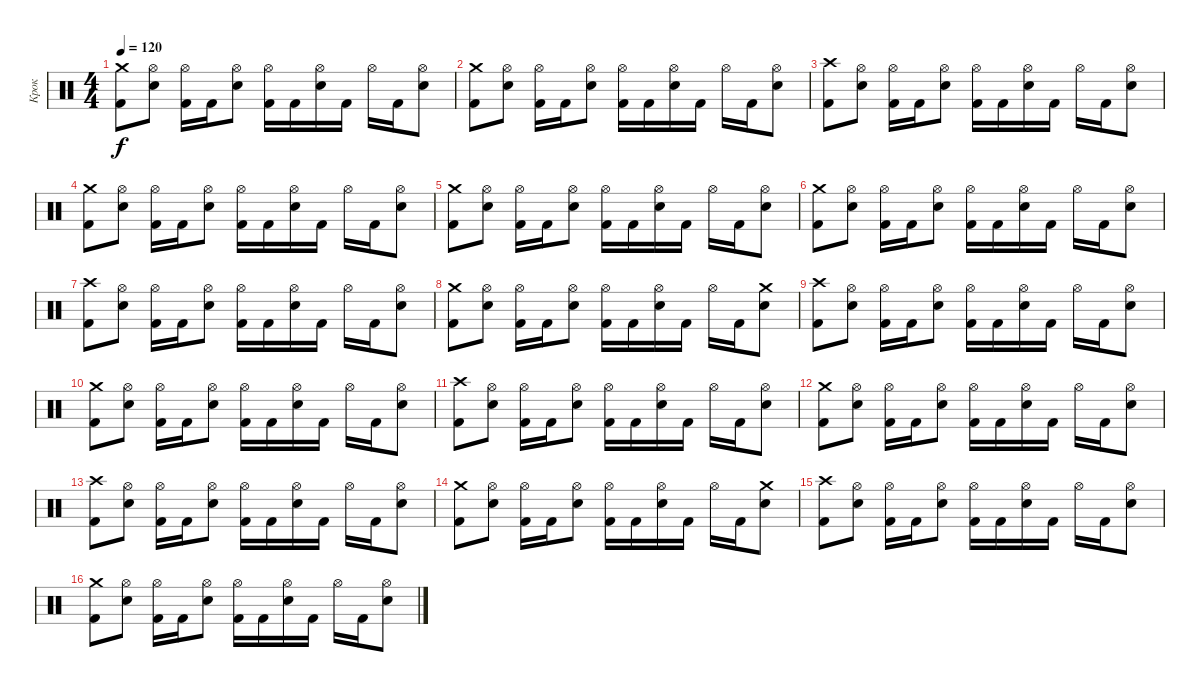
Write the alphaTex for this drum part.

\track ("Крок" "Крок") {instrument percussion}
\staff {score}
\articulation defaults
\ts (4 4)
\tempo 120
\clef neutral
\ks c
("Crash medium (hit)" "Kick (hit) 2").8{dy f} ("Hi-Hat (open)" "Electric Snare (hit)").8 ("Hi-Hat (open)" "Kick (hit) 2").16 "Kick (hit) 2".16 ("Hi-Hat (open)" "Electric Snare (hit)").8 ("Hi-Hat (open)" "Kick (hit) 2").16 "Kick (hit) 2".16 ("Hi-Hat (open)" "Electric Snare (hit)").16 "Kick (hit) 2".16 "Hi-Hat (open)".16 "Kick (hit) 2".16 ("Hi-Hat (open)" "Electric Snare (hit)").8 |
("Crash medium (hit)" "Kick (hit) 2").8 ("Hi-Hat (open)" "Electric Snare (hit)").8 ("Hi-Hat (open)" "Kick (hit) 2").16 "Kick (hit) 2".16 ("Hi-Hat (open)" "Electric Snare (hit)").8 ("Hi-Hat (open)" "Kick (hit) 2").16 "Kick (hit) 2".16 ("Hi-Hat (open)" "Electric Snare (hit)").16 "Kick (hit) 2".16 "Hi-Hat (open)".16 "Kick (hit) 2".16 ("Hi-Hat (open)" "Electric Snare (hit)").8 |
("Crash high (hit)" "Kick (hit) 2").8 ("Hi-Hat (open)" "Electric Snare (hit)").8 ("Hi-Hat (open)" "Kick (hit) 2").16 "Kick (hit) 2".16 ("Hi-Hat (open)" "Electric Snare (hit)").8 ("Hi-Hat (open)" "Kick (hit) 2").16 "Kick (hit) 2".16 ("Hi-Hat (open)" "Electric Snare (hit)").16 "Kick (hit) 2".16 "Hi-Hat (open)".16 "Kick (hit) 2".16 ("Hi-Hat (open)" "Electric Snare (hit)").8 |
("Crash medium (hit)" "Kick (hit) 2").8 ("Hi-Hat (open)" "Electric Snare (hit)").8 ("Hi-Hat (open)" "Kick (hit) 2").16 "Kick (hit) 2".16 ("Hi-Hat (open)" "Electric Snare (hit)").8 ("Hi-Hat (open)" "Kick (hit) 2").16 "Kick (hit) 2".16 ("Hi-Hat (open)" "Electric Snare (hit)").16 "Kick (hit) 2".16 "Hi-Hat (open)".16 "Kick (hit) 2".16 ("Hi-Hat (open)" "Electric Snare (hit)").8 |
("Crash medium (hit)" "Kick (hit) 2").8 ("Hi-Hat (open)" "Electric Snare (hit)").8 ("Hi-Hat (open)" "Kick (hit) 2").16 "Kick (hit) 2".16 ("Hi-Hat (open)" "Electric Snare (hit)").8 ("Hi-Hat (open)" "Kick (hit) 2").16 "Kick (hit) 2".16 ("Hi-Hat (open)" "Electric Snare (hit)").16 "Kick (hit) 2".16 "Hi-Hat (open)".16 "Kick (hit) 2".16 ("Hi-Hat (open)" "Electric Snare (hit)").8 |
("Crash medium (hit)" "Kick (hit) 2").8 ("Hi-Hat (open)" "Electric Snare (hit)").8 ("Hi-Hat (open)" "Kick (hit) 2").16 "Kick (hit) 2".16 ("Hi-Hat (open)" "Electric Snare (hit)").8 ("Hi-Hat (open)" "Kick (hit) 2").16 "Kick (hit) 2".16 ("Hi-Hat (open)" "Electric Snare (hit)").16 "Kick (hit) 2".16 "Hi-Hat (open)".16 "Kick (hit) 2".16 ("Hi-Hat (open)" "Electric Snare (hit)").8 |
("Crash high (hit)" "Kick (hit) 2").8 ("Hi-Hat (open)" "Electric Snare (hit)").8 ("Hi-Hat (open)" "Kick (hit) 2").16 "Kick (hit) 2".16 ("Hi-Hat (open)" "Electric Snare (hit)").8 ("Hi-Hat (open)" "Kick (hit) 2").16 "Kick (hit) 2".16 ("Hi-Hat (open)" "Electric Snare (hit)").16 "Kick (hit) 2".16 "Hi-Hat (open)".16 "Kick (hit) 2".16 ("Hi-Hat (open)" "Electric Snare (hit)").8 |
("Crash medium (hit)" "Kick (hit) 2").8 ("Hi-Hat (open)" "Electric Snare (hit)").8 ("Hi-Hat (open)" "Kick (hit) 2").16 "Kick (hit) 2".16 ("Hi-Hat (open)" "Electric Snare (hit)").8 ("Hi-Hat (open)" "Kick (hit) 2").16 "Kick (hit) 2".16 ("Hi-Hat (open)" "Electric Snare (hit)").16 "Kick (hit) 2".16 "Hi-Hat (open)".16 "Kick (hit) 2".16 ("Crash medium (hit)" "Electric Snare (hit)").8 |
("Crash high (hit)" "Kick (hit) 2").8 ("Hi-Hat (open)" "Electric Snare (hit)").8 ("Hi-Hat (open)" "Kick (hit) 2").16 "Kick (hit) 2".16 ("Hi-Hat (open)" "Electric Snare (hit)").8 ("Hi-Hat (open)" "Kick (hit) 2").16 "Kick (hit) 2".16 ("Hi-Hat (open)" "Electric Snare (hit)").16 "Kick (hit) 2".16 "Hi-Hat (open)".16 "Kick (hit) 2".16 ("Hi-Hat (open)" "Electric Snare (hit)").8 |
("Crash medium (hit)" "Kick (hit) 2").8 ("Hi-Hat (open)" "Electric Snare (hit)").8 ("Hi-Hat (open)" "Kick (hit) 2").16 "Kick (hit) 2".16 ("Hi-Hat (open)" "Electric Snare (hit)").8 ("Hi-Hat (open)" "Kick (hit) 2").16 "Kick (hit) 2".16 ("Hi-Hat (open)" "Electric Snare (hit)").16 "Kick (hit) 2".16 "Hi-Hat (open)".16 "Kick (hit) 2".16 ("Hi-Hat (open)" "Electric Snare (hit)").8 |
("Crash high (hit)" "Kick (hit) 2").8 ("Hi-Hat (open)" "Electric Snare (hit)").8 ("Hi-Hat (open)" "Kick (hit) 2").16 "Kick (hit) 2".16 ("Hi-Hat (open)" "Electric Snare (hit)").8 ("Hi-Hat (open)" "Kick (hit) 2").16 "Kick (hit) 2".16 ("Hi-Hat (open)" "Electric Snare (hit)").16 "Kick (hit) 2".16 "Hi-Hat (open)".16 "Kick (hit) 2".16 ("Hi-Hat (open)" "Electric Snare (hit)").8 |
("Crash medium (hit)" "Kick (hit) 2").8 ("Hi-Hat (open)" "Electric Snare (hit)").8 ("Hi-Hat (open)" "Kick (hit) 2").16 "Kick (hit) 2".16 ("Hi-Hat (open)" "Electric Snare (hit)").8 ("Hi-Hat (open)" "Kick (hit) 2").16 "Kick (hit) 2".16 ("Hi-Hat (open)" "Electric Snare (hit)").16 "Kick (hit) 2".16 "Hi-Hat (open)".16 "Kick (hit) 2".16 ("Hi-Hat (open)" "Electric Snare (hit)").8 |
("Crash high (hit)" "Kick (hit) 2").8 ("Hi-Hat (open)" "Electric Snare (hit)").8 ("Hi-Hat (open)" "Kick (hit) 2").16 "Kick (hit) 2".16 ("Hi-Hat (open)" "Electric Snare (hit)").8 ("Hi-Hat (open)" "Kick (hit) 2").16 "Kick (hit) 2".16 ("Hi-Hat (open)" "Electric Snare (hit)").16 "Kick (hit) 2".16 "Hi-Hat (open)".16 "Kick (hit) 2".16 ("Hi-Hat (open)" "Electric Snare (hit)").8 |
("Crash medium (hit)" "Kick (hit) 2").8 ("Hi-Hat (open)" "Electric Snare (hit)").8 ("Hi-Hat (open)" "Kick (hit) 2").16 "Kick (hit) 2".16 ("Hi-Hat (open)" "Electric Snare (hit)").8 ("Hi-Hat (open)" "Kick (hit) 2").16 "Kick (hit) 2".16 ("Hi-Hat (open)" "Electric Snare (hit)").16 "Kick (hit) 2".16 "Hi-Hat (open)".16 "Kick (hit) 2".16 ("Crash medium (hit)" "Electric Snare (hit)").8 |
("Crash high (hit)" "Kick (hit) 2").8 ("Hi-Hat (open)" "Electric Snare (hit)").8 ("Hi-Hat (open)" "Kick (hit) 2").16 "Kick (hit) 2".16 ("Hi-Hat (open)" "Electric Snare (hit)").8 ("Hi-Hat (open)" "Kick (hit) 2").16 "Kick (hit) 2".16 ("Hi-Hat (open)" "Electric Snare (hit)").16 "Kick (hit) 2".16 "Hi-Hat (open)".16 "Kick (hit) 2".16 ("Hi-Hat (open)" "Electric Snare (hit)").8 |
("Crash medium (hit)" "Kick (hit) 2").8 ("Hi-Hat (open)" "Electric Snare (hit)").8 ("Hi-Hat (open)" "Kick (hit) 2").16 "Kick (hit) 2".16 ("Hi-Hat (open)" "Electric Snare (hit)").8 ("Hi-Hat (open)" "Kick (hit) 2").16 "Kick (hit) 2".16 ("Hi-Hat (open)" "Electric Snare (hit)").16 "Kick (hit) 2".16 "Hi-Hat (open)".16 "Kick (hit) 2".16 ("Hi-Hat (open)" "Electric Snare (hit)").8
